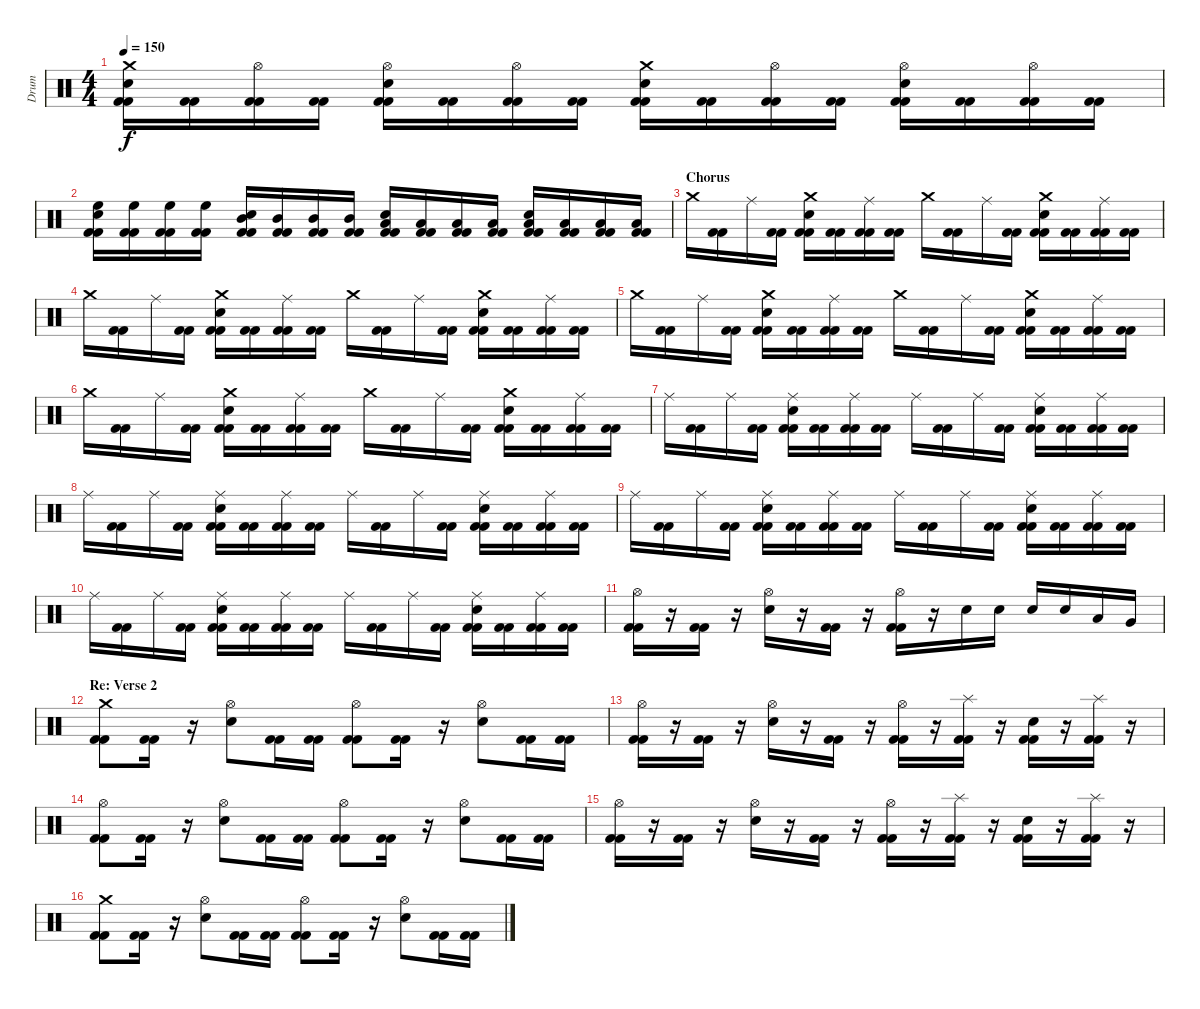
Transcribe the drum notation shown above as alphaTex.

\track ("Drum" "Drum") {instrument percussion}
\staff {score}
\articulation defaults
\ts (4 4)
\tempo 150
\clef neutral
\ks c
("Snare (hit) 2" "Crash medium (hit)" "Kick (hit) 2" "Kick (hit) 2").16{dy f} ("Kick (hit) 2" "Kick (hit) 2").16 ("Hi-Hat (open)" "Kick (hit) 2" "Kick (hit) 2").16 ("Kick (hit) 2" "Kick (hit) 2").16 ("Snare (hit) 2" "Hi-Hat (open)" "Kick (hit) 2" "Kick (hit) 2").16 ("Kick (hit) 2" "Kick (hit) 2").16 ("Hi-Hat (open)" "Kick (hit) 2" "Kick (hit) 2").16 ("Kick (hit) 2" "Kick (hit) 2").16 ("Snare (hit) 2" "Crash medium (hit)" "Kick (hit) 2" "Kick (hit) 2").16 ("Kick (hit) 2" "Kick (hit) 2").16 ("Hi-Hat (open)" "Kick (hit) 2" "Kick (hit) 2").16 ("Kick (hit) 2" "Kick (hit) 2").16 ("Snare (hit) 2" "Hi-Hat (open)" "Kick (hit) 2" "Kick (hit) 2").16 ("Kick (hit) 2" "Kick (hit) 2").16 ("Hi-Hat (open)" "Kick (hit) 2" "Kick (hit) 2").16 ("Kick (hit) 2" "Kick (hit) 2").16 |
("High Floor Tom (hit)" "Snare (hit) 2" "Kick (hit) 2" "Kick (hit) 2").16 ("High Floor Tom (hit)" "Kick (hit) 2" "Kick (hit) 2").16 ("High Floor Tom (hit)" "Kick (hit) 2" "Kick (hit) 2").16 ("High Floor Tom (hit)" "Kick (hit) 2" "Kick (hit) 2").16 ("Mid Tom (hit)" "Snare (hit) 2" "Kick (hit) 2" "Kick (hit) 2").16 ("Mid Tom (hit)" "Kick (hit) 2" "Kick (hit) 2").16 ("Mid Tom (hit)" "Kick (hit) 2" "Kick (hit) 2").16 ("Mid Tom (hit)" "Kick (hit) 2" "Kick (hit) 2").16 ("Low Tom (hit)" "Snare (hit) 2" "Kick (hit) 2" "Kick (hit) 2").16 ("Low Tom (hit)" "Kick (hit) 2" "Kick (hit) 2").16 ("Low Tom (hit)" "Kick (hit) 2" "Kick (hit) 2").16 ("Low Tom (hit)" "Kick (hit) 2" "Kick (hit) 2").16 ("Low Floor Tom (hit)" "Snare (hit) 2" "Kick (hit) 2" "Kick (hit) 2").16 ("Low Floor Tom (hit)" "Kick (hit) 2" "Kick (hit) 2").16 ("Low Floor Tom (hit)" "Kick (hit) 2" "Kick (hit) 2").16 ("Low Floor Tom (hit)" "Kick (hit) 2" "Kick (hit) 2").16 |
\section ("" "Chorus")
"Crash medium (hit)".16 ("Kick (hit) 2" "Kick (hit) 2").16 "Ride (middle)".16 ("Kick (hit) 2" "Kick (hit) 2").16 ("Snare (hit) 2" "Crash medium (hit)" "Kick (hit) 2" "Kick (hit) 2").16 ("Kick (hit) 2" "Kick (hit) 2").16 ("Ride (middle)" "Kick (hit) 2" "Kick (hit) 2").16 ("Kick (hit) 2" "Kick (hit) 2").16 "Crash medium (hit)".16 ("Kick (hit) 2" "Kick (hit) 2").16 "Ride (middle)".16 ("Kick (hit) 2" "Kick (hit) 2").16 ("Snare (hit) 2" "Crash medium (hit)" "Kick (hit) 2" "Kick (hit) 2").16 ("Kick (hit) 2" "Kick (hit) 2").16 ("Ride (middle)" "Kick (hit) 2" "Kick (hit) 2").16 ("Kick (hit) 2" "Kick (hit) 2").16 |
"Crash medium (hit)".16 ("Kick (hit) 2" "Kick (hit) 2").16 "Ride (middle)".16 ("Kick (hit) 2" "Kick (hit) 2").16 ("Snare (hit) 2" "Crash medium (hit)" "Kick (hit) 2" "Kick (hit) 2").16 ("Kick (hit) 2" "Kick (hit) 2").16 ("Ride (middle)" "Kick (hit) 2" "Kick (hit) 2").16 ("Kick (hit) 2" "Kick (hit) 2").16 "Crash medium (hit)".16 ("Kick (hit) 2" "Kick (hit) 2").16 "Ride (middle)".16 ("Kick (hit) 2" "Kick (hit) 2").16 ("Snare (hit) 2" "Crash medium (hit)" "Kick (hit) 2" "Kick (hit) 2").16 ("Kick (hit) 2" "Kick (hit) 2").16 ("Ride (middle)" "Kick (hit) 2" "Kick (hit) 2").16 ("Kick (hit) 2" "Kick (hit) 2").16 |
"Crash medium (hit)".16 ("Kick (hit) 2" "Kick (hit) 2").16 "Ride (middle)".16 ("Kick (hit) 2" "Kick (hit) 2").16 ("Snare (hit) 2" "Crash medium (hit)" "Kick (hit) 2" "Kick (hit) 2").16 ("Kick (hit) 2" "Kick (hit) 2").16 ("Ride (middle)" "Kick (hit) 2" "Kick (hit) 2").16 ("Kick (hit) 2" "Kick (hit) 2").16 "Crash medium (hit)".16 ("Kick (hit) 2" "Kick (hit) 2").16 "Ride (middle)".16 ("Kick (hit) 2" "Kick (hit) 2").16 ("Snare (hit) 2" "Crash medium (hit)" "Kick (hit) 2" "Kick (hit) 2").16 ("Kick (hit) 2" "Kick (hit) 2").16 ("Ride (middle)" "Kick (hit) 2" "Kick (hit) 2").16 ("Kick (hit) 2" "Kick (hit) 2").16 |
"Crash medium (hit)".16 ("Kick (hit) 2" "Kick (hit) 2").16 "Ride (middle)".16 ("Kick (hit) 2" "Kick (hit) 2").16 ("Snare (hit) 2" "Crash medium (hit)" "Kick (hit) 2" "Kick (hit) 2").16 ("Kick (hit) 2" "Kick (hit) 2").16 ("Ride (middle)" "Kick (hit) 2" "Kick (hit) 2").16 ("Kick (hit) 2" "Kick (hit) 2").16 "Crash medium (hit)".16 ("Kick (hit) 2" "Kick (hit) 2").16 "Ride (middle)".16 ("Kick (hit) 2" "Kick (hit) 2").16 ("Snare (hit) 2" "Crash medium (hit)" "Kick (hit) 2" "Kick (hit) 2").16 ("Kick (hit) 2" "Kick (hit) 2").16 ("Ride (middle)" "Kick (hit) 2" "Kick (hit) 2").16 ("Kick (hit) 2" "Kick (hit) 2").16 |
"Ride (middle)".16 ("Kick (hit) 2" "Kick (hit) 2").16 "Ride (middle)".16 ("Kick (hit) 2" "Kick (hit) 2").16 ("Snare (hit) 2" "Ride (middle)" "Kick (hit) 2" "Kick (hit) 2").16 ("Kick (hit) 2" "Kick (hit) 2").16 ("Ride (middle)" "Kick (hit) 2" "Kick (hit) 2").16 ("Kick (hit) 2" "Kick (hit) 2").16 "Ride (middle)".16 ("Kick (hit) 2" "Kick (hit) 2").16 "Ride (middle)".16 ("Kick (hit) 2" "Kick (hit) 2").16 ("Snare (hit) 2" "Ride (middle)" "Kick (hit) 2" "Kick (hit) 2").16 ("Kick (hit) 2" "Kick (hit) 2").16 ("Ride (middle)" "Kick (hit) 2" "Kick (hit) 2").16 ("Kick (hit) 2" "Kick (hit) 2").16 |
"Ride (middle)".16 ("Kick (hit) 2" "Kick (hit) 2").16 "Ride (middle)".16 ("Kick (hit) 2" "Kick (hit) 2").16 ("Snare (hit) 2" "Ride (middle)" "Kick (hit) 2" "Kick (hit) 2").16 ("Kick (hit) 2" "Kick (hit) 2").16 ("Ride (middle)" "Kick (hit) 2" "Kick (hit) 2").16 ("Kick (hit) 2" "Kick (hit) 2").16 "Ride (middle)".16 ("Kick (hit) 2" "Kick (hit) 2").16 "Ride (middle)".16 ("Kick (hit) 2" "Kick (hit) 2").16 ("Snare (hit) 2" "Ride (middle)" "Kick (hit) 2" "Kick (hit) 2").16 ("Kick (hit) 2" "Kick (hit) 2").16 ("Ride (middle)" "Kick (hit) 2" "Kick (hit) 2").16 ("Kick (hit) 2" "Kick (hit) 2").16 |
"Ride (middle)".16 ("Kick (hit) 2" "Kick (hit) 2").16 "Ride (middle)".16 ("Kick (hit) 2" "Kick (hit) 2").16 ("Snare (hit) 2" "Ride (middle)" "Kick (hit) 2" "Kick (hit) 2").16 ("Kick (hit) 2" "Kick (hit) 2").16 ("Ride (middle)" "Kick (hit) 2" "Kick (hit) 2").16 ("Kick (hit) 2" "Kick (hit) 2").16 "Ride (middle)".16 ("Kick (hit) 2" "Kick (hit) 2").16 "Ride (middle)".16 ("Kick (hit) 2" "Kick (hit) 2").16 ("Snare (hit) 2" "Ride (middle)" "Kick (hit) 2" "Kick (hit) 2").16 ("Kick (hit) 2" "Kick (hit) 2").16 ("Ride (middle)" "Kick (hit) 2" "Kick (hit) 2").16 ("Kick (hit) 2" "Kick (hit) 2").16 |
"Ride (middle)".16 ("Kick (hit) 2" "Kick (hit) 2").16 "Ride (middle)".16 ("Kick (hit) 2" "Kick (hit) 2").16 ("Snare (hit) 2" "Ride (middle)" "Kick (hit) 2" "Kick (hit) 2").16 ("Kick (hit) 2" "Kick (hit) 2").16 ("Ride (middle)" "Kick (hit) 2" "Kick (hit) 2").16 ("Kick (hit) 2" "Kick (hit) 2").16 "Ride (middle)".16 ("Kick (hit) 2" "Kick (hit) 2").16 "Ride (middle)".16 ("Kick (hit) 2" "Kick (hit) 2").16 ("Snare (hit) 2" "Ride (middle)" "Kick (hit) 2" "Kick (hit) 2").16 ("Kick (hit) 2" "Kick (hit) 2").16 ("Ride (middle)" "Kick (hit) 2" "Kick (hit) 2").16 ("Kick (hit) 2" "Kick (hit) 2").16 |
("Hi-Hat (open)" "Kick (hit) 2" "Kick (hit) 2").16 r.16 ("Kick (hit) 2" "Kick (hit) 2").16 r.16 ("Snare (hit) 2" "Hi-Hat (open)").16 r.16 ("Kick (hit) 2" "Kick (hit) 2").16 r.16 ("Hi-Hat (open)" "Kick (hit) 2" "Kick (hit) 2").16 r.16 "Snare (hit) 2".16 "Snare (hit) 2".16 "Snare (hit) 2".16 "Snare (hit) 2".16 "Low Tom (hit)".16 "Very Low Tom (hit)".16 |
\section ("" "Re: Verse 2")
("Crash medium (hit)" "Kick (hit) 2" "Kick (hit) 2").8 ("Kick (hit) 2" "Kick (hit) 2").16 r.16 ("Snare (hit) 2" "Hi-Hat (open)").8 ("Kick (hit) 2" "Kick (hit) 2").16 ("Kick (hit) 2" "Kick (hit) 2").16 ("Hi-Hat (open)" "Kick (hit) 2" "Kick (hit) 2").8 ("Kick (hit) 2" "Kick (hit) 2").16 r.16 ("Snare (hit) 2" "Hi-Hat (open)").8 ("Kick (hit) 2" "Kick (hit) 2").16 ("Kick (hit) 2" "Kick (hit) 2").16 |
("Hi-Hat (open)" "Kick (hit) 2" "Kick (hit) 2").16 r.16 ("Kick (hit) 2" "Kick (hit) 2").16 r.16 ("Snare (hit) 2" "Hi-Hat (open)").16 r.16 ("Kick (hit) 2" "Kick (hit) 2").16 r.16 ("Hi-Hat (open)" "Kick (hit) 2" "Kick (hit) 2").16 r.16 ("Splash (hit)" "Kick (hit) 2" "Kick (hit) 2").16 r.16 ("Snare (hit) 2" "Kick (hit) 2" "Kick (hit) 2").16 r.16 ("Splash (hit)" "Kick (hit) 2" "Kick (hit) 2").16 r.16 |
("Hi-Hat (open)" "Kick (hit) 2" "Kick (hit) 2").8 ("Kick (hit) 2" "Kick (hit) 2").16 r.16 ("Snare (hit) 2" "Hi-Hat (open)").8 ("Kick (hit) 2" "Kick (hit) 2").16 ("Kick (hit) 2" "Kick (hit) 2").16 ("Hi-Hat (open)" "Kick (hit) 2" "Kick (hit) 2").8 ("Kick (hit) 2" "Kick (hit) 2").16 r.16 ("Snare (hit) 2" "Hi-Hat (open)").8 ("Kick (hit) 2" "Kick (hit) 2").16 ("Kick (hit) 2" "Kick (hit) 2").16 |
("Hi-Hat (open)" "Kick (hit) 2" "Kick (hit) 2").16 r.16 ("Kick (hit) 2" "Kick (hit) 2").16 r.16 ("Snare (hit) 2" "Hi-Hat (open)").16 r.16 ("Kick (hit) 2" "Kick (hit) 2").16 r.16 ("Hi-Hat (open)" "Kick (hit) 2" "Kick (hit) 2").16 r.16 ("Splash (hit)" "Kick (hit) 2" "Kick (hit) 2").16 r.16 ("Snare (hit) 2" "Kick (hit) 2" "Kick (hit) 2").16 r.16 ("Splash (hit)" "Kick (hit) 2" "Kick (hit) 2").16 r.16 |
("Crash medium (hit)" "Kick (hit) 2" "Kick (hit) 2").8 ("Kick (hit) 2" "Kick (hit) 2").16 r.16 ("Snare (hit) 2" "Hi-Hat (open)").8 ("Kick (hit) 2" "Kick (hit) 2").16 ("Kick (hit) 2" "Kick (hit) 2").16 ("Hi-Hat (open)" "Kick (hit) 2" "Kick (hit) 2").8 ("Kick (hit) 2" "Kick (hit) 2").16 r.16 ("Snare (hit) 2" "Hi-Hat (open)").8 ("Kick (hit) 2" "Kick (hit) 2").16 ("Kick (hit) 2" "Kick (hit) 2").16
